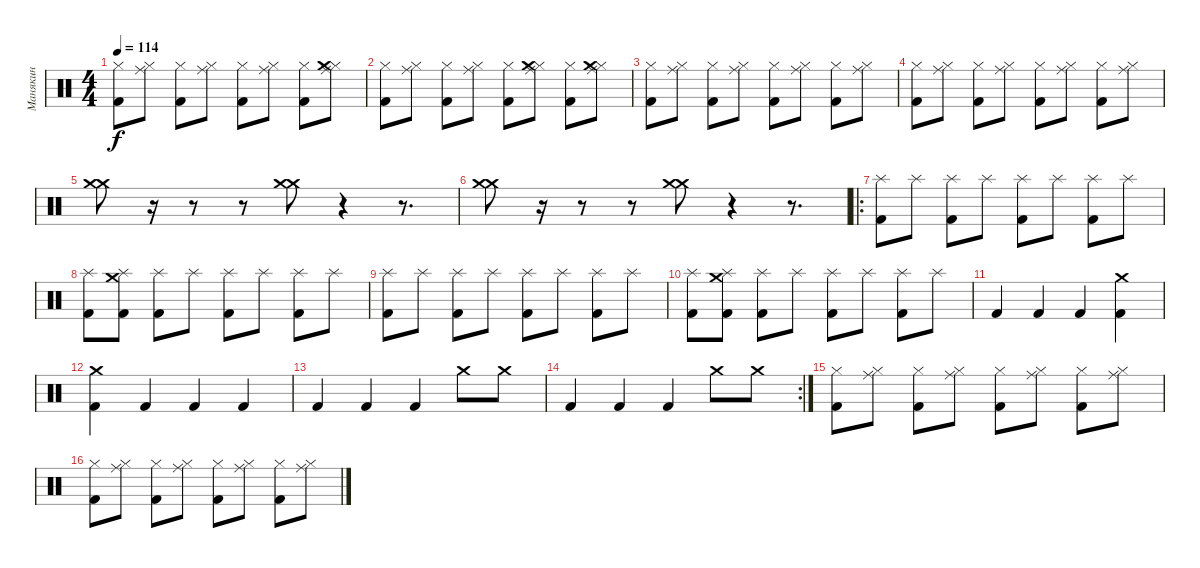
\track ("Манякин" "Манякин") {instrument percussion}
\staff {score}
\articulation defaults
\ts (4 4)
\tempo 114
\clef neutral
\ks c
("Kick (hit) 2" "Hi-Hat (closed)").8{dy f} ("Hi-Hat (closed)" "Ride (middle)").8 ("Kick (hit) 2" "Hi-Hat (closed)").8 ("Hi-Hat (closed)" "Ride (middle)").8 ("Kick (hit) 2" "Hi-Hat (closed)").8 ("Hi-Hat (closed)" "Ride (middle)").8 ("Kick (hit) 2" "Hi-Hat (closed)").8 ("Hi-Hat (closed)" "Ride (middle)" "Crash medium (hit)").8 |
("Kick (hit) 2" "Hi-Hat (closed)").8 ("Hi-Hat (closed)" "Ride (middle)").8 ("Kick (hit) 2" "Hi-Hat (closed)").8 ("Hi-Hat (closed)" "Ride (middle)").8 ("Kick (hit) 2" "Hi-Hat (closed)").8 ("Hi-Hat (closed)" "Ride (middle)" "Crash medium (hit)").8 ("Kick (hit) 2" "Hi-Hat (closed)").8 ("Hi-Hat (closed)" "Ride (middle)" "Crash medium (hit)").8 |
("Kick (hit) 2" "Hi-Hat (closed)").8 ("Hi-Hat (closed)" "Ride (middle)").8 ("Kick (hit) 2" "Hi-Hat (closed)").8 ("Hi-Hat (closed)" "Ride (middle)").8 ("Kick (hit) 2" "Hi-Hat (closed)").8 ("Hi-Hat (closed)" "Ride (middle)").8 ("Kick (hit) 2" "Hi-Hat (closed)").8 ("Hi-Hat (closed)" "Ride (middle)").8 |
("Kick (hit) 2" "Hi-Hat (closed)").8 ("Hi-Hat (closed)" "Ride (middle)").8 ("Kick (hit) 2" "Hi-Hat (closed)").8 ("Hi-Hat (closed)" "Ride (middle)").8 ("Kick (hit) 2" "Hi-Hat (closed)").8 ("Hi-Hat (closed)" "Ride (middle)").8 ("Kick (hit) 2" "Hi-Hat (closed)").8 ("Hi-Hat (closed)" "Ride (middle)").8 |
("Crash medium (hit)" "Crash medium (hit)").8 r.16 r.8 r.8 ("Crash medium (hit)" "Crash medium (hit)").8 r.4 r.8{d} |
("Crash medium (hit)" "Crash medium (hit)").8 r.16 r.8 r.8 ("Crash medium (hit)" "Crash medium (hit)").8 r.4 r.8{d} |
\ro
("Kick (hit) 2" "Splash (hit)").8 "Splash (hit)".8 ("Kick (hit) 2" "Splash (hit)").8 "Splash (hit)".8 ("Kick (hit) 2" "Splash (hit)").8 "Splash (hit)".8 ("Kick (hit) 2" "Splash (hit)").8 "Splash (hit)".8 |
("Kick (hit) 2" "Splash (hit)").8 ("Kick (hit) 2" "Crash medium (hit)" "Splash (hit)").8 ("Kick (hit) 2" "Splash (hit)").8 "Splash (hit)".8 ("Kick (hit) 2" "Splash (hit)").8 "Splash (hit)".8 ("Kick (hit) 2" "Splash (hit)").8 "Splash (hit)".8 |
("Kick (hit) 2" "Splash (hit)").8 "Splash (hit)".8 ("Kick (hit) 2" "Splash (hit)").8 "Splash (hit)".8 ("Kick (hit) 2" "Splash (hit)").8 "Splash (hit)".8 ("Kick (hit) 2" "Splash (hit)").8 "Splash (hit)".8 |
("Kick (hit) 2" "Splash (hit)").8 ("Kick (hit) 2" "Crash medium (hit)" "Splash (hit)").8 ("Kick (hit) 2" "Splash (hit)").8 "Splash (hit)".8 ("Kick (hit) 2" "Splash (hit)").8 "Splash (hit)".8 ("Kick (hit) 2" "Splash (hit)").8 "Splash (hit)".8 |
"Kick (hit) 2".4 "Kick (hit) 2".4 "Kick (hit) 2".4 ("Kick (hit) 2" "Crash medium (hit)").4 |
("Kick (hit) 2" "Crash medium (hit)").4 "Kick (hit) 2".4 "Kick (hit) 2".4 "Kick (hit) 2".4 |
"Kick (hit) 2".4 "Kick (hit) 2".4 "Kick (hit) 2".4 "Crash medium (hit)".8 "Crash medium (hit)".8 |
\rc 2 "Kick (hit) 2".4 "Kick (hit) 2".4 "Kick (hit) 2".4 "Crash medium (hit)".8 "Crash medium (hit)".8
|
("Kick (hit) 2" "Hi-Hat (closed)").8 ("Hi-Hat (closed)" "Ride (middle)").8 ("Kick (hit) 2" "Hi-Hat (closed)").8 ("Hi-Hat (closed)" "Ride (middle)").8 ("Kick (hit) 2" "Hi-Hat (closed)").8 ("Hi-Hat (closed)" "Ride (middle)").8 ("Kick (hit) 2" "Hi-Hat (closed)").8 ("Hi-Hat (closed)" "Ride (middle)").8 |
("Kick (hit) 2" "Hi-Hat (closed)").8 ("Hi-Hat (closed)" "Ride (middle)").8 ("Kick (hit) 2" "Hi-Hat (closed)").8 ("Hi-Hat (closed)" "Ride (middle)").8 ("Kick (hit) 2" "Hi-Hat (closed)").8 ("Hi-Hat (closed)" "Ride (middle)").8 ("Kick (hit) 2" "Hi-Hat (closed)").8 ("Hi-Hat (closed)" "Ride (middle)").8
